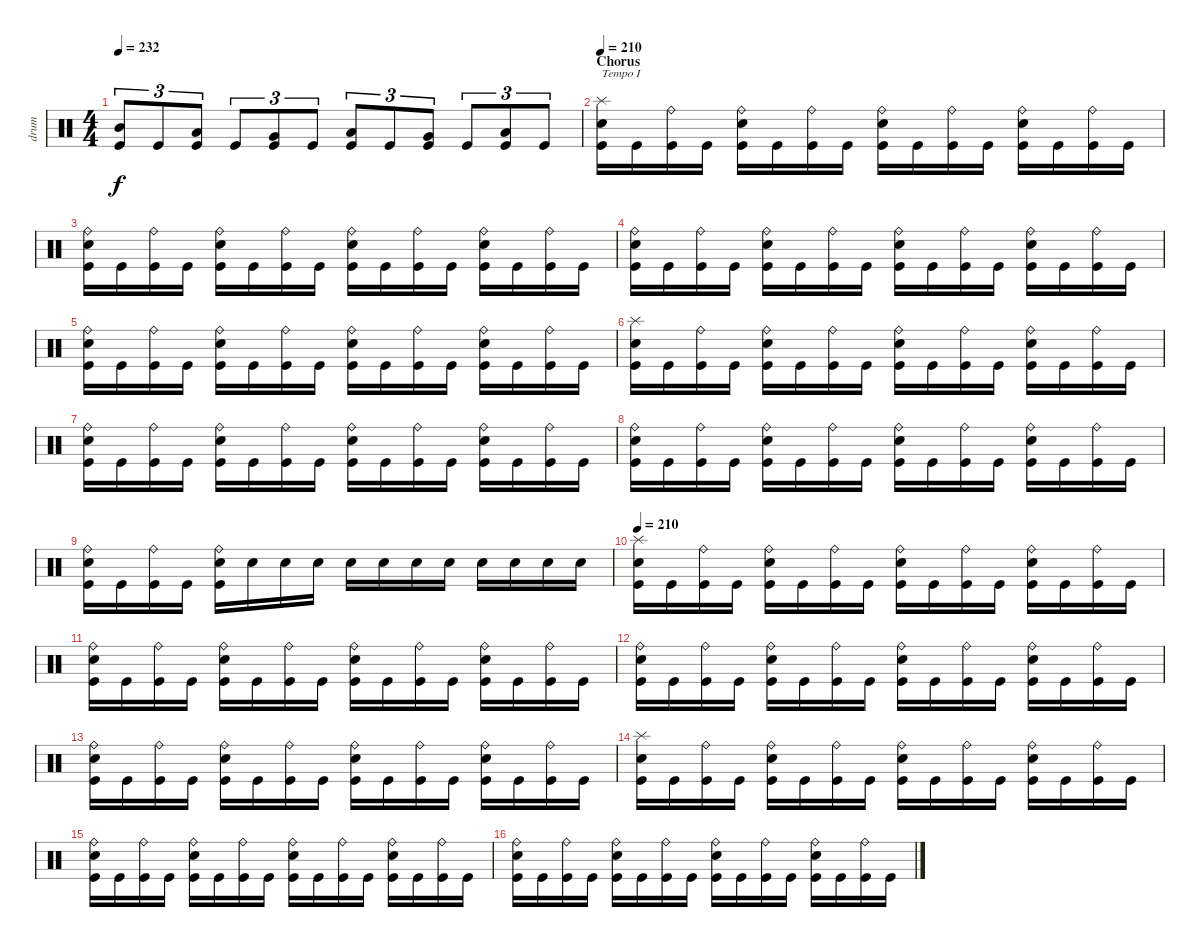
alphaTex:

\track ("drum" "drum") {instrument percussion}
\staff {score}
\articulation defaults
\ts (4 4)
\tempo 232
\clef neutral
\ks c
("Kick (hit)" "Mid Tom (hit)").8{tu (3 2) dy f} "Kick (hit)".8{tu (3 2)} ("Kick (hit)" "Low Tom (hit)").8{tu (3 2)} "Kick (hit)".8{tu (3 2)} ("Kick (hit)" "Very Low Tom (hit)").8{tu (3 2)} "Kick (hit)".8{tu (3 2)} ("Kick (hit)" "Low Tom (hit)").8{tu (3 2)} "Kick (hit)".8{tu (3 2)} ("Kick (hit)" "Very Low Tom (hit)").8{tu (3 2)} "Kick (hit)".8{tu (3 2)} ("Kick (hit)" "Low Floor Tom (hit)").8{tu (3 2)} "Kick (hit)".8{tu (3 2)} |
\section ("" "Chorus")
\tempo 210
("Kick (hit)" "Electric Snare (hit)" "Splash (hit)").16{txt "Tempo I"} "Kick (hit)".16 ("Kick (hit)" "Ride (bell)").16 "Kick (hit)".16 ("Kick (hit)" "Electric Snare (hit)" "Ride (bell)").16 "Kick (hit)".16 ("Kick (hit)" "Ride (bell)").16 "Kick (hit)".16 ("Kick (hit)" "Electric Snare (hit)" "Ride (bell)").16 "Kick (hit)".16 ("Kick (hit)" "Ride (bell)").16 "Kick (hit)".16 ("Kick (hit)" "Electric Snare (hit)" "Ride (bell)").16 "Kick (hit)".16 ("Kick (hit)" "Ride (bell)").16 "Kick (hit)".16 |
("Kick (hit)" "Electric Snare (hit)" "Ride (bell)").16 "Kick (hit)".16 ("Kick (hit)" "Ride (bell)").16 "Kick (hit)".16 ("Kick (hit)" "Electric Snare (hit)" "Ride (bell)").16 "Kick (hit)".16 ("Kick (hit)" "Ride (bell)").16 "Kick (hit)".16 ("Kick (hit)" "Electric Snare (hit)" "Ride (bell)").16 "Kick (hit)".16 ("Kick (hit)" "Ride (bell)").16 "Kick (hit)".16 ("Kick (hit)" "Electric Snare (hit)" "Ride (bell)").16 "Kick (hit)".16 ("Kick (hit)" "Ride (bell)").16 "Kick (hit)".16 |
("Kick (hit)" "Electric Snare (hit)" "Ride (bell)").16 "Kick (hit)".16 ("Kick (hit)" "Ride (bell)").16 "Kick (hit)".16 ("Kick (hit)" "Electric Snare (hit)" "Ride (bell)").16 "Kick (hit)".16 ("Kick (hit)" "Ride (bell)").16 "Kick (hit)".16 ("Kick (hit)" "Electric Snare (hit)" "Ride (bell)").16 "Kick (hit)".16 ("Kick (hit)" "Ride (bell)").16 "Kick (hit)".16 ("Kick (hit)" "Electric Snare (hit)" "Ride (bell)").16 "Kick (hit)".16 ("Kick (hit)" "Ride (bell)").16 "Kick (hit)".16 |
("Kick (hit)" "Electric Snare (hit)" "Ride (bell)").16 "Kick (hit)".16 ("Kick (hit)" "Ride (bell)").16 "Kick (hit)".16 ("Kick (hit)" "Electric Snare (hit)" "Ride (bell)").16 "Kick (hit)".16 ("Kick (hit)" "Ride (bell)").16 "Kick (hit)".16 ("Kick (hit)" "Electric Snare (hit)" "Ride (bell)").16 "Kick (hit)".16 ("Kick (hit)" "Ride (bell)").16 "Kick (hit)".16 ("Kick (hit)" "Electric Snare (hit)" "Ride (bell)").16 "Kick (hit)".16 ("Kick (hit)" "Ride (bell)").16 "Kick (hit)".16 |
("Kick (hit)" "Electric Snare (hit)" "Splash (hit)").16 "Kick (hit)".16 ("Kick (hit)" "Ride (bell)").16 "Kick (hit)".16 ("Kick (hit)" "Electric Snare (hit)" "Ride (bell)").16 "Kick (hit)".16 ("Kick (hit)" "Ride (bell)").16 "Kick (hit)".16 ("Kick (hit)" "Electric Snare (hit)" "Ride (bell)").16 "Kick (hit)".16 ("Kick (hit)" "Ride (bell)").16 "Kick (hit)".16 ("Kick (hit)" "Electric Snare (hit)" "Ride (bell)").16 "Kick (hit)".16 ("Kick (hit)" "Ride (bell)").16 "Kick (hit)".16 |
("Kick (hit)" "Electric Snare (hit)" "Ride (bell)").16 "Kick (hit)".16 ("Kick (hit)" "Ride (bell)").16 "Kick (hit)".16 ("Kick (hit)" "Electric Snare (hit)" "Ride (bell)").16 "Kick (hit)".16 ("Kick (hit)" "Ride (bell)").16 "Kick (hit)".16 ("Kick (hit)" "Electric Snare (hit)" "Ride (bell)").16 "Kick (hit)".16 ("Kick (hit)" "Ride (bell)").16 "Kick (hit)".16 ("Kick (hit)" "Electric Snare (hit)" "Ride (bell)").16 "Kick (hit)".16 ("Kick (hit)" "Ride (bell)").16 "Kick (hit)".16 |
("Kick (hit)" "Electric Snare (hit)" "Ride (bell)").16 "Kick (hit)".16 ("Kick (hit)" "Ride (bell)").16 "Kick (hit)".16 ("Kick (hit)" "Electric Snare (hit)" "Ride (bell)").16 "Kick (hit)".16 ("Kick (hit)" "Ride (bell)").16 "Kick (hit)".16 ("Kick (hit)" "Electric Snare (hit)" "Ride (bell)").16 "Kick (hit)".16 ("Kick (hit)" "Ride (bell)").16 "Kick (hit)".16 ("Kick (hit)" "Electric Snare (hit)" "Ride (bell)").16 "Kick (hit)".16 ("Kick (hit)" "Ride (bell)").16 "Kick (hit)".16 |
("Kick (hit)" "Electric Snare (hit)" "Ride (bell)").16 "Kick (hit)".16 ("Kick (hit)" "Ride (bell)").16 "Kick (hit)".16 ("Kick (hit)" "Electric Snare (hit)" "Ride (bell)").16 "Electric Snare (hit)".16 "Electric Snare (hit)".16 "Electric Snare (hit)".16 "Electric Snare (hit)".16 "Electric Snare (hit)".16 "Electric Snare (hit)".16 "Electric Snare (hit)".16 "Electric Snare (hit)".16 "Electric Snare (hit)".16 "Electric Snare (hit)".16 "Electric Snare (hit)".16 |
\tempo 210
("Kick (hit)" "Electric Snare (hit)" "Splash (hit)").16 "Kick (hit)".16 ("Kick (hit)" "Ride (bell)").16 "Kick (hit)".16 ("Kick (hit)" "Electric Snare (hit)" "Ride (bell)").16 "Kick (hit)".16 ("Kick (hit)" "Ride (bell)").16 "Kick (hit)".16 ("Kick (hit)" "Electric Snare (hit)" "Ride (bell)").16 "Kick (hit)".16 ("Kick (hit)" "Ride (bell)").16 "Kick (hit)".16 ("Kick (hit)" "Electric Snare (hit)" "Ride (bell)").16 "Kick (hit)".16 ("Kick (hit)" "Ride (bell)").16 "Kick (hit)".16 |
("Kick (hit)" "Electric Snare (hit)" "Ride (bell)").16 "Kick (hit)".16 ("Kick (hit)" "Ride (bell)").16 "Kick (hit)".16 ("Kick (hit)" "Electric Snare (hit)" "Ride (bell)").16 "Kick (hit)".16 ("Kick (hit)" "Ride (bell)").16 "Kick (hit)".16 ("Kick (hit)" "Electric Snare (hit)" "Ride (bell)").16 "Kick (hit)".16 ("Kick (hit)" "Ride (bell)").16 "Kick (hit)".16 ("Kick (hit)" "Electric Snare (hit)" "Ride (bell)").16 "Kick (hit)".16 ("Kick (hit)" "Ride (bell)").16 "Kick (hit)".16 |
("Kick (hit)" "Electric Snare (hit)" "Ride (bell)").16 "Kick (hit)".16 ("Kick (hit)" "Ride (bell)").16 "Kick (hit)".16 ("Kick (hit)" "Electric Snare (hit)" "Ride (bell)").16 "Kick (hit)".16 ("Kick (hit)" "Ride (bell)").16 "Kick (hit)".16 ("Kick (hit)" "Electric Snare (hit)" "Ride (bell)").16 "Kick (hit)".16 ("Kick (hit)" "Ride (bell)").16 "Kick (hit)".16 ("Kick (hit)" "Electric Snare (hit)" "Ride (bell)").16 "Kick (hit)".16 ("Kick (hit)" "Ride (bell)").16 "Kick (hit)".16 |
("Kick (hit)" "Electric Snare (hit)" "Ride (bell)").16 "Kick (hit)".16 ("Kick (hit)" "Ride (bell)").16 "Kick (hit)".16 ("Kick (hit)" "Electric Snare (hit)" "Ride (bell)").16 "Kick (hit)".16 ("Kick (hit)" "Ride (bell)").16 "Kick (hit)".16 ("Kick (hit)" "Electric Snare (hit)" "Ride (bell)").16 "Kick (hit)".16 ("Kick (hit)" "Ride (bell)").16 "Kick (hit)".16 ("Kick (hit)" "Electric Snare (hit)" "Ride (bell)").16 "Kick (hit)".16 ("Kick (hit)" "Ride (bell)").16 "Kick (hit)".16 |
("Kick (hit)" "Electric Snare (hit)" "Splash (hit)").16 "Kick (hit)".16 ("Kick (hit)" "Ride (bell)").16 "Kick (hit)".16 ("Kick (hit)" "Electric Snare (hit)" "Ride (bell)").16 "Kick (hit)".16 ("Kick (hit)" "Ride (bell)").16 "Kick (hit)".16 ("Kick (hit)" "Electric Snare (hit)" "Ride (bell)").16 "Kick (hit)".16 ("Kick (hit)" "Ride (bell)").16 "Kick (hit)".16 ("Kick (hit)" "Electric Snare (hit)" "Ride (bell)").16 "Kick (hit)".16 ("Kick (hit)" "Ride (bell)").16 "Kick (hit)".16 |
("Kick (hit)" "Electric Snare (hit)" "Ride (bell)").16 "Kick (hit)".16 ("Kick (hit)" "Ride (bell)").16 "Kick (hit)".16 ("Kick (hit)" "Electric Snare (hit)" "Ride (bell)").16 "Kick (hit)".16 ("Kick (hit)" "Ride (bell)").16 "Kick (hit)".16 ("Kick (hit)" "Electric Snare (hit)" "Ride (bell)").16 "Kick (hit)".16 ("Kick (hit)" "Ride (bell)").16 "Kick (hit)".16 ("Kick (hit)" "Electric Snare (hit)" "Ride (bell)").16 "Kick (hit)".16 ("Kick (hit)" "Ride (bell)").16 "Kick (hit)".16 |
("Kick (hit)" "Electric Snare (hit)" "Ride (bell)").16 "Kick (hit)".16 ("Kick (hit)" "Ride (bell)").16 "Kick (hit)".16 ("Kick (hit)" "Electric Snare (hit)" "Ride (bell)").16 "Kick (hit)".16 ("Kick (hit)" "Ride (bell)").16 "Kick (hit)".16 ("Kick (hit)" "Electric Snare (hit)" "Ride (bell)").16 "Kick (hit)".16 ("Kick (hit)" "Ride (bell)").16 "Kick (hit)".16 ("Kick (hit)" "Electric Snare (hit)" "Ride (bell)").16 "Kick (hit)".16 ("Kick (hit)" "Ride (bell)").16 "Kick (hit)".16
